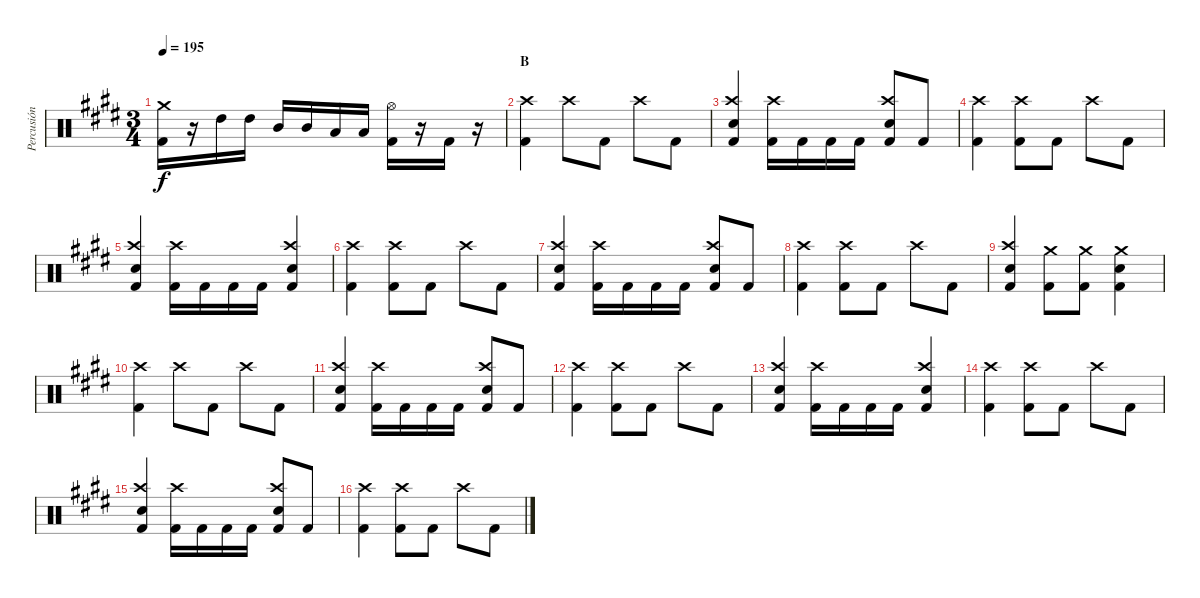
\track ("Percusión" "Percusión") {instrument percussion}
\staff {score}
\articulation defaults
\ts (3 4)
\tempo 195
\clef neutral
\ks e
("Crash medium (hit)" "Kick (hit) 2").16{dy f} r.16 "High Tom (hit)".16 "High Tom (hit)".16 "Mid Tom (hit)".16 "Mid Tom (hit)".16 "Low Tom (hit)".16 "Low Tom (hit)".16 ("Hi-Hat (open)" "Kick (hit) 2").16 r.16 "Kick (hit) 2".16 r.16 |
\section ("" "B")
("Crash high (hit)" "Kick (hit) 2").4 "Crash high (hit)".8 "Kick (hit) 2".8 "Crash high (hit)".8 "Kick (hit) 2".8 |
("Crash high (hit)" "Electric Snare (hit)" "Kick (hit) 2").4 ("Crash high (hit)" "Kick (hit) 2").16 "Kick (hit) 2".16 "Kick (hit) 2".16 "Kick (hit) 2".16 ("Crash high (hit)" "Electric Snare (hit)" "Kick (hit) 2").8 "Kick (hit) 2".8 |
("Crash high (hit)" "Kick (hit) 2").4 ("Crash high (hit)" "Kick (hit) 2").8 "Kick (hit) 2".8 "Crash high (hit)".8 "Kick (hit) 2".8 |
("Crash high (hit)" "Electric Snare (hit)" "Kick (hit) 2").4 ("Crash high (hit)" "Kick (hit) 2").16 "Kick (hit) 2".16 "Kick (hit) 2".16 "Kick (hit) 2".16 ("Crash high (hit)" "Electric Snare (hit)" "Kick (hit) 2").4 |
("Crash high (hit)" "Kick (hit) 2").4 ("Crash high (hit)" "Kick (hit) 2").8 "Kick (hit) 2".8 "Crash high (hit)".8 "Kick (hit) 2".8 |
("Crash high (hit)" "Electric Snare (hit)" "Kick (hit) 2").4 ("Crash high (hit)" "Kick (hit) 2").16 "Kick (hit) 2".16 "Kick (hit) 2".16 "Kick (hit) 2".16 ("Crash high (hit)" "Electric Snare (hit)" "Kick (hit) 2").8 "Kick (hit) 2".8 |
("Crash high (hit)" "Kick (hit) 2").4 ("Crash high (hit)" "Kick (hit) 2").8 "Kick (hit) 2".8 "Crash high (hit)".8 "Kick (hit) 2".8 |
("Crash high (hit)" "Electric Snare (hit)" "Kick (hit) 2").4 ("Crash medium (hit)" "Kick (hit) 2").8 ("Crash medium (hit)" "Kick (hit) 2").8 ("Crash medium (hit)" "Electric Snare (hit)" "Kick (hit) 2").4 |
("Crash high (hit)" "Kick (hit) 2").4 "Crash high (hit)".8 "Kick (hit) 2".8 "Crash high (hit)".8 "Kick (hit) 2".8 |
("Crash high (hit)" "Electric Snare (hit)" "Kick (hit) 2").4 ("Crash high (hit)" "Kick (hit) 2").16 "Kick (hit) 2".16 "Kick (hit) 2".16 "Kick (hit) 2".16 ("Crash high (hit)" "Electric Snare (hit)" "Kick (hit) 2").8 "Kick (hit) 2".8 |
("Crash high (hit)" "Kick (hit) 2").4 ("Crash high (hit)" "Kick (hit) 2").8 "Kick (hit) 2".8 "Crash high (hit)".8 "Kick (hit) 2".8 |
("Crash high (hit)" "Electric Snare (hit)" "Kick (hit) 2").4 ("Crash high (hit)" "Kick (hit) 2").16 "Kick (hit) 2".16 "Kick (hit) 2".16 "Kick (hit) 2".16 ("Crash high (hit)" "Electric Snare (hit)" "Kick (hit) 2").4 |
("Crash high (hit)" "Kick (hit) 2").4 ("Crash high (hit)" "Kick (hit) 2").8 "Kick (hit) 2".8 "Crash high (hit)".8 "Kick (hit) 2".8 |
("Crash high (hit)" "Electric Snare (hit)" "Kick (hit) 2").4 ("Crash high (hit)" "Kick (hit) 2").16 "Kick (hit) 2".16 "Kick (hit) 2".16 "Kick (hit) 2".16 ("Crash high (hit)" "Electric Snare (hit)" "Kick (hit) 2").8 "Kick (hit) 2".8 |
("Crash high (hit)" "Kick (hit) 2").4 ("Crash high (hit)" "Kick (hit) 2").8 "Kick (hit) 2".8 "Crash high (hit)".8 "Kick (hit) 2".8
